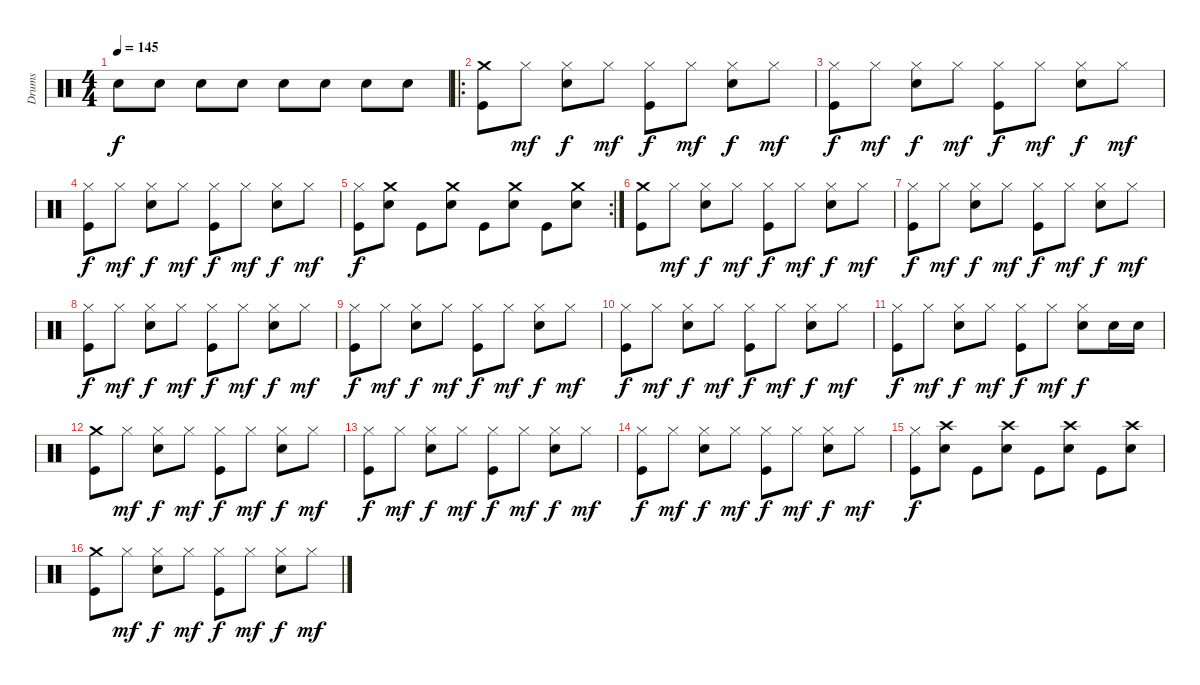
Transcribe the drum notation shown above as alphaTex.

\track ("Drums" "Drums") {instrument percussion}
\staff {score}
\articulation defaults
\ts (4 4)
\tempo 145
\clef neutral
\ks c "Snare (hit) 2".8{dy f} "Snare (hit) 2".8 "Snare (hit) 2".8 "Snare (hit) 2".8 "Snare (hit) 2".8 "Snare (hit) 2".8 "Snare (hit) 2".8 "Snare (hit) 2".8
|
\ro
("Crash medium (hit)" "Kick (hit)").8 "Hi-Hat (closed)".8{dy mf} ("Hi-Hat (closed)" "Snare (hit) 2").8{dy f} "Hi-Hat (closed)".8{dy mf} ("Hi-Hat (closed)" "Kick (hit)").8{dy f} "Hi-Hat (closed)".8{dy mf} ("Hi-Hat (closed)" "Snare (hit) 2").8{dy f} "Hi-Hat (closed)".8{dy mf} |
("Hi-Hat (closed)" "Kick (hit)").8{dy f} "Hi-Hat (closed)".8{dy mf} ("Hi-Hat (closed)" "Snare (hit) 2").8{dy f} "Hi-Hat (closed)".8{dy mf} ("Hi-Hat (closed)" "Kick (hit)").8{dy f} "Hi-Hat (closed)".8{dy mf} ("Hi-Hat (closed)" "Snare (hit) 2").8{dy f} "Hi-Hat (closed)".8{dy mf} |
("Hi-Hat (closed)" "Kick (hit)").8{dy f} "Hi-Hat (closed)".8{dy mf} ("Hi-Hat (closed)" "Snare (hit) 2").8{dy f} "Hi-Hat (closed)".8{dy mf} ("Hi-Hat (closed)" "Kick (hit)").8{dy f} "Hi-Hat (closed)".8{dy mf} ("Hi-Hat (closed)" "Snare (hit) 2").8{dy f} "Hi-Hat (closed)".8{dy mf} |
\rc 2
("Hi-Hat (closed)" "Kick (hit)").8{dy f} ("Snare (hit) 2" "Crash medium (hit)").8 "Kick (hit)".8 ("Snare (hit) 2" "Crash medium (hit)").8 "Kick (hit)".8 ("Snare (hit) 2" "Crash medium (hit)").8 "Kick (hit)".8 ("Snare (hit) 2" "Crash medium (hit)").8 |
("Kick (hit)" "Crash medium (hit)").8 "Hi-Hat (closed)".8{dy mf} ("Hi-Hat (closed)" "Snare (hit) 2").8{dy f} "Hi-Hat (closed)".8{dy mf} ("Hi-Hat (closed)" "Kick (hit)").8{dy f} "Hi-Hat (closed)".8{dy mf} ("Hi-Hat (closed)" "Snare (hit) 2").8{dy f} "Hi-Hat (closed)".8{dy mf} |
("Hi-Hat (closed)" "Kick (hit)").8{dy f} "Hi-Hat (closed)".8{dy mf} ("Hi-Hat (closed)" "Snare (hit) 2").8{dy f} "Hi-Hat (closed)".8{dy mf} ("Hi-Hat (closed)" "Kick (hit)").8{dy f} "Hi-Hat (closed)".8{dy mf} ("Hi-Hat (closed)" "Snare (hit) 2").8{dy f} "Hi-Hat (closed)".8{dy mf} |
("Hi-Hat (closed)" "Kick (hit)").8{dy f} "Hi-Hat (closed)".8{dy mf} ("Hi-Hat (closed)" "Snare (hit) 2").8{dy f} "Hi-Hat (closed)".8{dy mf} ("Hi-Hat (closed)" "Kick (hit)").8{dy f} "Hi-Hat (closed)".8{dy mf} ("Hi-Hat (closed)" "Snare (hit) 2").8{dy f} "Hi-Hat (closed)".8{dy mf} |
("Hi-Hat (closed)" "Kick (hit)").8{dy f} "Hi-Hat (closed)".8{dy mf} ("Hi-Hat (closed)" "Snare (hit) 2").8{dy f} "Hi-Hat (closed)".8{dy mf} ("Hi-Hat (closed)" "Kick (hit)").8{dy f} "Hi-Hat (closed)".8{dy mf} ("Hi-Hat (closed)" "Snare (hit) 2").8{dy f} "Hi-Hat (closed)".8{dy mf} |
("Hi-Hat (closed)" "Kick (hit)").8{dy f} "Hi-Hat (closed)".8{dy mf} ("Hi-Hat (closed)" "Snare (hit) 2").8{dy f} "Hi-Hat (closed)".8{dy mf} ("Hi-Hat (closed)" "Kick (hit)").8{dy f} "Hi-Hat (closed)".8{dy mf} ("Hi-Hat (closed)" "Snare (hit) 2").8{dy f} "Hi-Hat (closed)".8{dy mf} |
("Hi-Hat (closed)" "Kick (hit)").8{dy f} "Hi-Hat (closed)".8{dy mf} ("Hi-Hat (closed)" "Snare (hit) 2").8{dy f} "Hi-Hat (closed)".8{dy mf} ("Hi-Hat (closed)" "Kick (hit)").8{dy f} "Hi-Hat (closed)".8{dy mf} ("Hi-Hat (closed)" "Snare (hit) 2").8{dy f} "Snare (hit) 2".16 "Snare (hit) 2".16 |
("Kick (hit)" "Crash medium (hit)").8 "Hi-Hat (closed)".8{dy mf} ("Hi-Hat (closed)" "Snare (hit) 2").8{dy f} "Hi-Hat (closed)".8{dy mf} ("Hi-Hat (closed)" "Kick (hit)").8{dy f} "Hi-Hat (closed)".8{dy mf} ("Hi-Hat (closed)" "Snare (hit) 2").8{dy f} "Hi-Hat (closed)".8{dy mf} |
("Hi-Hat (closed)" "Kick (hit)").8{dy f} "Hi-Hat (closed)".8{dy mf} ("Hi-Hat (closed)" "Snare (hit) 2").8{dy f} "Hi-Hat (closed)".8{dy mf} ("Hi-Hat (closed)" "Kick (hit)").8{dy f} "Hi-Hat (closed)".8{dy mf} ("Hi-Hat (closed)" "Snare (hit) 2").8{dy f} "Hi-Hat (closed)".8{dy mf} |
("Hi-Hat (closed)" "Kick (hit)").8{dy f} "Hi-Hat (closed)".8{dy mf} ("Hi-Hat (closed)" "Snare (hit) 2").8{dy f} "Hi-Hat (closed)".8{dy mf} ("Hi-Hat (closed)" "Kick (hit)").8{dy f} "Hi-Hat (closed)".8{dy mf} ("Hi-Hat (closed)" "Snare (hit) 2").8{dy f} "Hi-Hat (closed)".8{dy mf} |
("Hi-Hat (closed)" "Kick (hit)").8{dy f} ("Snare (hit) 2" "Crash high (hit)").8 "Kick (hit)".8 ("Snare (hit) 2" "Crash high (hit)").8 "Kick (hit)".8 ("Snare (hit) 2" "Crash high (hit)").8 "Kick (hit)".8 ("Snare (hit) 2" "Crash high (hit)").8 |
("Kick (hit)" "Crash medium (hit)").8 "Hi-Hat (closed)".8{dy mf} ("Hi-Hat (closed)" "Snare (hit) 2").8{dy f} "Hi-Hat (closed)".8{dy mf} ("Hi-Hat (closed)" "Kick (hit)").8{dy f} "Hi-Hat (closed)".8{dy mf} ("Hi-Hat (closed)" "Snare (hit) 2").8{dy f} "Hi-Hat (closed)".8{dy mf}
